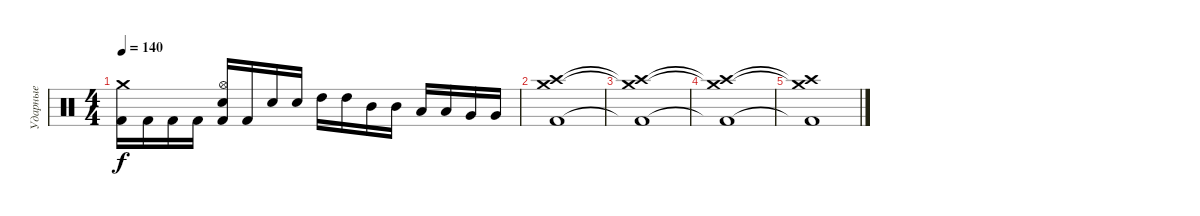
\track ("Ударные" "Ударные") {instrument percussion}
\staff {score}
\articulation defaults
\ts (4 4)
\tempo 140
\clef neutral
\ks c
("Crash medium (hit)" "Kick (hit) 2").16{dy f} "Kick (hit) 2".16 "Kick (hit) 2".16 "Kick (hit) 2".16 ("Hi-Hat (open)" "Electric Snare (hit)" "Kick (hit) 2").16 "Kick (hit) 2".16 "Electric Snare (hit)".16 "Electric Snare (hit)".16 "High Tom (hit)".16 "High Tom (hit)".16 "Mid Tom (hit)".16 "Mid Tom (hit)".16 "Low Tom (hit)".16 "Low Tom (hit)".16 "Very Low Tom (hit)".16 "Very Low Tom (hit)".16 |
("Crash medium (hit)" "Crash high (hit)" "Kick (hit) 2").1 |
("Crash medium (hit)"{t} "Crash high (hit)"{t} "Kick (hit) 2"{t}).1 |
("Crash medium (hit)"{t} "Crash high (hit)"{t} "Kick (hit) 2"{t}).1 |
("Crash medium (hit)"{t} "Crash high (hit)"{t} "Kick (hit) 2"{t}).1
